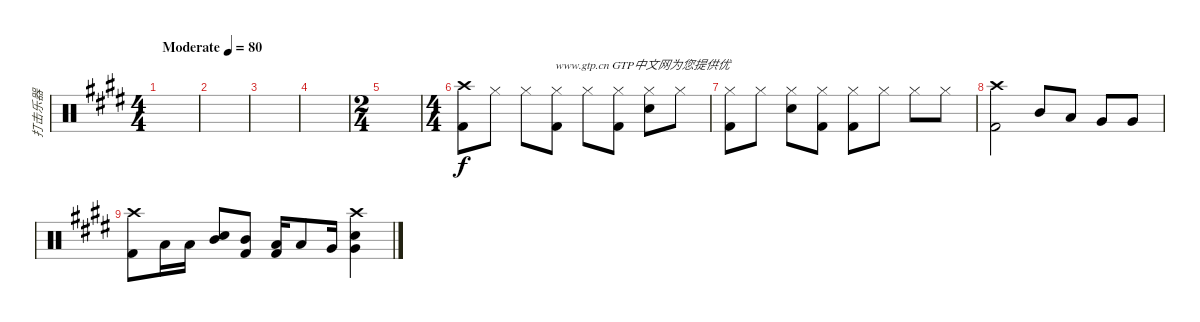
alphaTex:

\track ("打击乐器" "打击乐器") {instrument percussion}
\staff {score}
\articulation defaults
\ts (4 4)
\tempo (80 "Moderate")
\clef neutral
\ks c#minor
|
|
|
|
\ts (2 4)
|
\ts (4 4)
("Crash high (hit)" "Kick (hit) 2").8 "Hi-Hat (closed)".8{txt "                    www.gtp.cn GTP中文网为您提供优"} "Hi-Hat (closed)".8 ("Hi-Hat (closed)" "Kick (hit) 2").8 "Hi-Hat (closed)".8 ("Hi-Hat (closed)" "Kick (hit) 2").8 ("Hi-Hat (closed)" "Snare (hit) 2").8 "Hi-Hat (closed)".8 |
("Hi-Hat (closed)" "Kick (hit) 2").8 "Hi-Hat (closed)".8 ("Hi-Hat (closed)" "Snare (hit) 2").8 ("Hi-Hat (closed)" "Kick (hit) 2").8 ("Hi-Hat (closed)" "Kick (hit) 2").8 "Hi-Hat (closed)".8 "Hi-Hat (closed)".8 "Hi-Hat (closed)".8 |
("Crash high (hit)" "Kick (hit) 2").2 "Mid Tom (hit)".8 "Low Tom (hit)".8 "Very Low Tom (hit)".8 "Very Low Tom (hit)".8 |
("Crash high (hit)" "Kick (hit) 2").8 "Low Tom (hit)".16 "Low Tom (hit)".16 ("Mid Tom (hit)" "Snare (hit) 2").8 ("Mid Tom (hit)" "Kick (hit) 2").8 ("Low Tom (hit)" "Kick (hit) 2").16 "Low Tom (hit)".8 "Very Low Tom (hit)".16 ("Crash high (hit)" "Very Low Tom (hit)" "Snare (hit) 2").4
